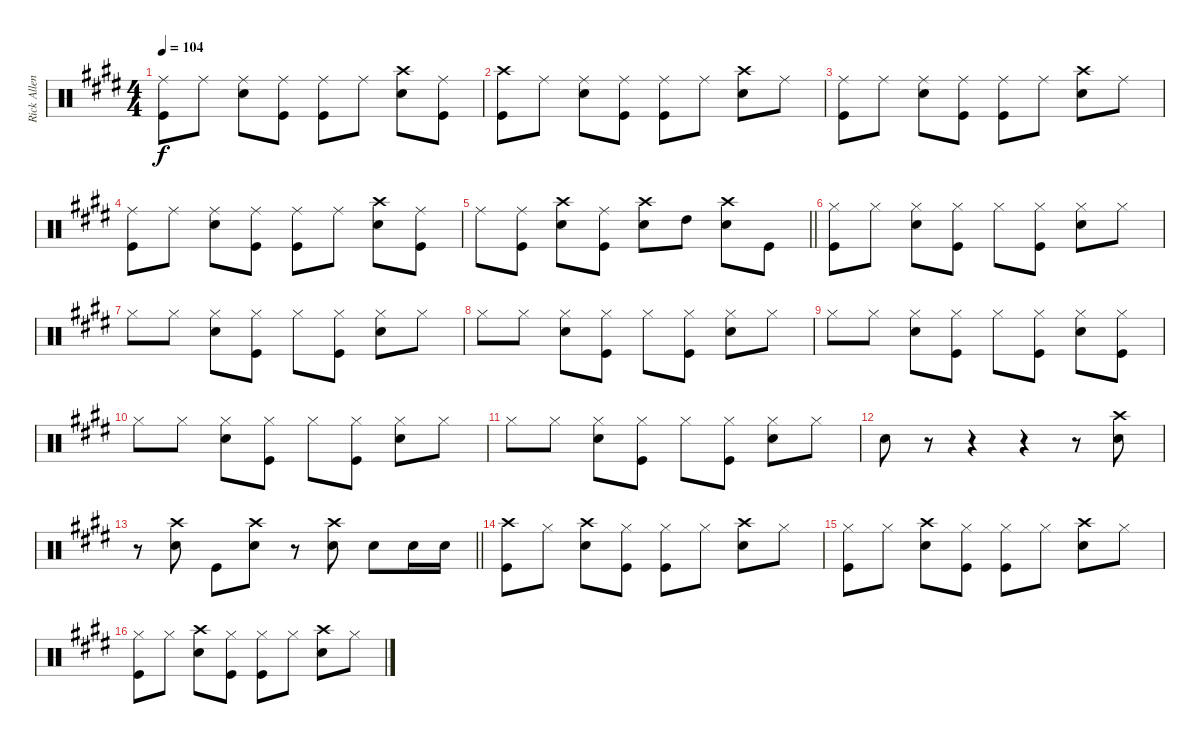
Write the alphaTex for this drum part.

\track ("Rick Allen" "Rick Allen") {instrument percussion}
\staff {score}
\articulation defaults
\ts (4 4)
\tempo 104
\clef neutral
\ks e
("Ride (middle)" "Kick (hit)").8{dy f} "Ride (middle)".8 ("Ride (middle)" "Snare (hit) 2").8 ("Ride (middle)" "Kick (hit)").8 ("Ride (middle)" "Kick (hit)").8 "Ride (middle)".8 ("Crash high (hit)" "Snare (hit) 2").8 ("Ride (middle)" "Kick (hit)").8 |
("Crash high (hit)" "Kick (hit)").8 "Ride (middle)".8 ("Ride (middle)" "Snare (hit) 2").8 ("Ride (middle)" "Kick (hit)").8 ("Ride (middle)" "Kick (hit)").8 "Ride (middle)".8 ("Crash high (hit)" "Snare (hit) 2").8 "Ride (middle)".8 |
("Ride (middle)" "Kick (hit)").8 "Ride (middle)".8 ("Ride (middle)" "Snare (hit) 2").8 ("Ride (middle)" "Kick (hit)").8 ("Ride (middle)" "Kick (hit)").8 "Ride (middle)".8 ("Crash high (hit)" "Snare (hit) 2").8 "Ride (middle)".8 |
("Ride (middle)" "Kick (hit)").8 "Ride (middle)".8 ("Ride (middle)" "Snare (hit) 2").8 ("Ride (middle)" "Kick (hit)").8 ("Ride (middle)" "Kick (hit)").8 "Ride (middle)".8 ("Crash high (hit)" "Snare (hit) 2").8 ("Ride (middle)" "Kick (hit)").8 |
\barLineRight lightlight "Ride (middle)".8
("Ride (middle)" "Kick (hit)").8 ("Crash high (hit)" "Snare (hit) 2").8 ("Ride (middle)" "Kick (hit)").8 ("Crash high (hit)" "Snare (hit) 2").8 "High Tom (hit)".8 ("Crash high (hit)" "Snare (hit) 2").8 "Kick (hit)".8 |
("Hi-Hat (closed)" "Kick (hit)").8 "Hi-Hat (closed)".8 ("Hi-Hat (closed)" "Snare (hit) 2").8 ("Hi-Hat (closed)" "Kick (hit)").8 "Hi-Hat (closed)".8 ("Hi-Hat (closed)" "Kick (hit)").8 ("Hi-Hat (closed)" "Snare (hit) 2").8 "Hi-Hat (closed)".8 |
"Hi-Hat (closed)".8 "Hi-Hat (closed)".8 ("Hi-Hat (closed)" "Snare (hit) 2").8 ("Hi-Hat (closed)" "Kick (hit)").8 "Hi-Hat (closed)".8 ("Hi-Hat (closed)" "Kick (hit)").8 ("Hi-Hat (closed)" "Snare (hit) 2").8 "Hi-Hat (closed)".8 |
"Hi-Hat (closed)".8 "Hi-Hat (closed)".8 ("Hi-Hat (closed)" "Snare (hit) 2").8 ("Hi-Hat (closed)" "Kick (hit)").8 "Hi-Hat (closed)".8 ("Hi-Hat (closed)" "Kick (hit)").8 ("Hi-Hat (closed)" "Snare (hit) 2").8 "Hi-Hat (closed)".8 |
"Hi-Hat (closed)".8 "Hi-Hat (closed)".8 ("Hi-Hat (closed)" "Snare (hit) 2").8 ("Hi-Hat (closed)" "Kick (hit)").8 "Hi-Hat (closed)".8 ("Hi-Hat (closed)" "Kick (hit)").8 ("Hi-Hat (closed)" "Snare (hit) 2").8 ("Hi-Hat (closed)" "Kick (hit)").8 |
"Hi-Hat (closed)".8 "Hi-Hat (closed)".8 ("Hi-Hat (closed)" "Snare (hit) 2").8 ("Hi-Hat (closed)" "Kick (hit)").8 "Hi-Hat (closed)".8 ("Hi-Hat (closed)" "Kick (hit)").8 ("Hi-Hat (closed)" "Snare (hit) 2").8 "Hi-Hat (closed)".8 |
"Hi-Hat (closed)".8 "Hi-Hat (closed)".8 ("Hi-Hat (closed)" "Snare (hit) 2").8 ("Hi-Hat (closed)" "Kick (hit)").8 "Hi-Hat (closed)".8 ("Hi-Hat (closed)" "Kick (hit)").8 ("Hi-Hat (closed)" "Snare (hit) 2").8 "Hi-Hat (closed)".8 |
"Snare (hit) 2".8 r.8 r.4 r.4 r.8 ("Crash high (hit)" "Snare (hit) 2").8 |
\barLineRight lightlight
r.8 ("Crash high (hit)" "Snare (hit) 2").8 "Kick (hit)".8 ("Crash high (hit)" "Snare (hit) 2").8 r.8 ("Crash high (hit)" "Snare (hit) 2").8 "Snare (hit) 2".8 "Snare (hit) 2".16 "Snare (hit) 2".16 |
("Crash high (hit)" "Kick (hit)").8 "Hi-Hat (closed)".8 ("Crash high (hit)" "Snare (hit) 2").8 ("Hi-Hat (closed)" "Kick (hit)").8 ("Hi-Hat (closed)" "Kick (hit)").8 "Hi-Hat (closed)".8 ("Crash high (hit)" "Snare (hit) 2").8 "Hi-Hat (closed)".8 |
("Hi-Hat (closed)" "Kick (hit)").8 "Hi-Hat (closed)".8 ("Crash high (hit)" "Snare (hit) 2").8 ("Hi-Hat (closed)" "Kick (hit)").8 ("Hi-Hat (closed)" "Kick (hit)").8 "Hi-Hat (closed)".8 ("Crash high (hit)" "Snare (hit) 2").8 "Hi-Hat (closed)".8 |
("Hi-Hat (closed)" "Kick (hit)").8 "Hi-Hat (closed)".8 ("Crash high (hit)" "Snare (hit) 2").8 ("Hi-Hat (closed)" "Kick (hit)").8 ("Hi-Hat (closed)" "Kick (hit)").8 "Hi-Hat (closed)".8 ("Crash high (hit)" "Snare (hit) 2").8 "Hi-Hat (closed)".8
